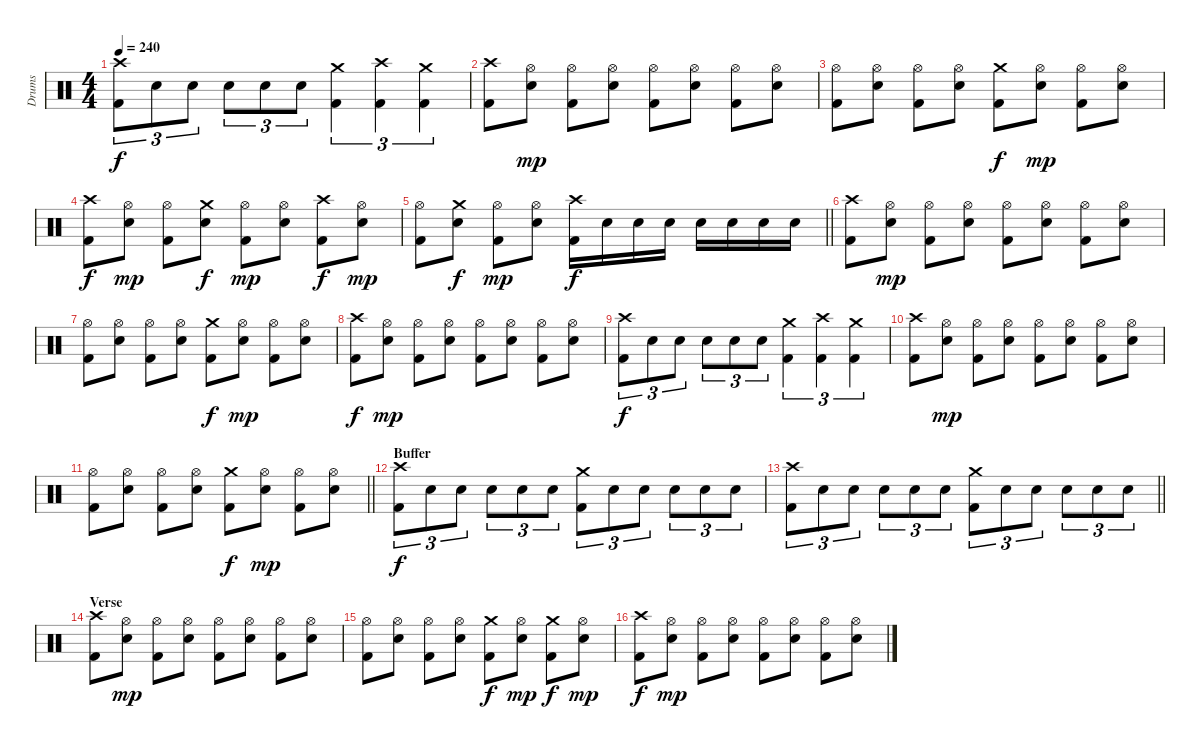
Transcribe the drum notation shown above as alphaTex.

\track ("Drums" "Drums") {instrument percussion}
\staff {score}
\articulation defaults
\ts (4 4)
\tempo 240
\clef neutral
\ks c
("Crash high (hit)" "Kick (hit) 2").8{tu (3 2) dy f} "Snare (hit) 2".8{tu (3 2)} "Snare (hit) 2".8{tu (3 2)} "Snare (hit) 2".8{tu (3 2)} "Snare (hit) 2".8{tu (3 2)} "Snare (hit) 2".8{tu (3 2)} ("Crash medium (hit)" "Kick (hit) 2").4{tu (3 2)} ("Crash high (hit)" "Kick (hit) 2").4{tu (3 2)} ("Crash medium (hit)" "Kick (hit) 2").4{tu (3 2)} |
("Crash high (hit)" "Kick (hit) 2").8 ("Hi-Hat (open)" "Snare (hit) 2").8{dy mp} ("Hi-Hat (open)" "Kick (hit) 2").8 ("Hi-Hat (open)" "Snare (hit) 2").8 ("Hi-Hat (open)" "Kick (hit) 2").8 ("Hi-Hat (open)" "Snare (hit) 2").8 ("Hi-Hat (open)" "Kick (hit) 2").8 ("Hi-Hat (open)" "Snare (hit) 2").8 |
("Hi-Hat (open)" "Kick (hit) 2").8 ("Hi-Hat (open)" "Snare (hit) 2").8 ("Hi-Hat (open)" "Kick (hit) 2").8 ("Hi-Hat (open)" "Snare (hit) 2").8 ("Crash medium (hit)" "Kick (hit) 2").8{dy f} ("Hi-Hat (open)" "Snare (hit) 2").8{dy mp} ("Hi-Hat (open)" "Kick (hit) 2").8 ("Hi-Hat (open)" "Snare (hit) 2").8 |
("Crash high (hit)" "Kick (hit) 2").8{dy f} ("Hi-Hat (open)" "Snare (hit) 2").8{dy mp} ("Hi-Hat (open)" "Kick (hit) 2").8 ("Crash medium (hit)" "Snare (hit) 2").8{dy f} ("Hi-Hat (open)" "Kick (hit) 2").8{dy mp} ("Hi-Hat (open)" "Snare (hit) 2").8 ("Crash high (hit)" "Kick (hit) 2").8{dy f} ("Hi-Hat (open)" "Snare (hit) 2").8{dy mp} |
\barLineRight lightlight
("Hi-Hat (open)" "Kick (hit) 2").8 ("Crash medium (hit)" "Snare (hit) 2").8{dy f} ("Hi-Hat (open)" "Kick (hit) 2").8{dy mp} ("Hi-Hat (open)" "Snare (hit) 2").8 ("Crash high (hit)" "Kick (hit) 2").16{dy f} "Snare (hit) 2".16 "Snare (hit) 2".16 "Snare (hit) 2".16 "Snare (hit) 2".16 "Snare (hit) 2".16 "Snare (hit) 2".16 "Snare (hit) 2".16 |
("Crash high (hit)" "Kick (hit) 2").8 ("Hi-Hat (open)" "Snare (hit) 2").8{dy mp} ("Hi-Hat (open)" "Kick (hit) 2").8 ("Hi-Hat (open)" "Snare (hit) 2").8 ("Hi-Hat (open)" "Kick (hit) 2").8 ("Hi-Hat (open)" "Snare (hit) 2").8 ("Hi-Hat (open)" "Kick (hit) 2").8 ("Hi-Hat (open)" "Snare (hit) 2").8 |
("Hi-Hat (open)" "Kick (hit) 2").8 ("Hi-Hat (open)" "Snare (hit) 2").8 ("Hi-Hat (open)" "Kick (hit) 2").8 ("Hi-Hat (open)" "Snare (hit) 2").8 ("Crash medium (hit)" "Kick (hit) 2").8{dy f} ("Hi-Hat (open)" "Snare (hit) 2").8{dy mp} ("Hi-Hat (open)" "Kick (hit) 2").8 ("Hi-Hat (open)" "Snare (hit) 2").8 |
("Crash high (hit)" "Kick (hit) 2").8{dy f} ("Hi-Hat (open)" "Snare (hit) 2").8{dy mp} ("Hi-Hat (open)" "Kick (hit) 2").8 ("Hi-Hat (open)" "Snare (hit) 2").8 ("Hi-Hat (open)" "Kick (hit) 2").8 ("Hi-Hat (open)" "Snare (hit) 2").8 ("Hi-Hat (open)" "Kick (hit) 2").8 ("Hi-Hat (open)" "Snare (hit) 2").8 |
("Crash high (hit)" "Kick (hit) 2").8{tu (3 2) dy f} "Snare (hit) 2".8{tu (3 2)} "Snare (hit) 2".8{tu (3 2)} "Snare (hit) 2".8{tu (3 2)} "Snare (hit) 2".8{tu (3 2)} "Snare (hit) 2".8{tu (3 2)} ("Crash medium (hit)" "Kick (hit) 2").4{tu (3 2)} ("Crash high (hit)" "Kick (hit) 2").4{tu (3 2)} ("Crash medium (hit)" "Kick (hit) 2").4{tu (3 2)} |
("Crash high (hit)" "Kick (hit) 2").8 ("Hi-Hat (open)" "Snare (hit) 2").8{dy mp} ("Hi-Hat (open)" "Kick (hit) 2").8 ("Hi-Hat (open)" "Snare (hit) 2").8 ("Hi-Hat (open)" "Kick (hit) 2").8 ("Hi-Hat (open)" "Snare (hit) 2").8 ("Hi-Hat (open)" "Kick (hit) 2").8 ("Hi-Hat (open)" "Snare (hit) 2").8 |
\barLineRight lightlight
("Hi-Hat (open)" "Kick (hit) 2").8 ("Hi-Hat (open)" "Snare (hit) 2").8 ("Hi-Hat (open)" "Kick (hit) 2").8 ("Hi-Hat (open)" "Snare (hit) 2").8 ("Crash medium (hit)" "Kick (hit) 2").8{dy f} ("Hi-Hat (open)" "Snare (hit) 2").8{dy mp} ("Hi-Hat (open)" "Kick (hit) 2").8 ("Hi-Hat (open)" "Snare (hit) 2").8 |
\section ("" "Buffer")
("Crash high (hit)" "Kick (hit) 2").8{tu (3 2) dy f} "Snare (hit) 2".8{tu (3 2)} "Snare (hit) 2".8{tu (3 2)} "Snare (hit) 2".8{tu (3 2)} "Snare (hit) 2".8{tu (3 2)} "Snare (hit) 2".8{tu (3 2)} ("Crash medium (hit)" "Kick (hit) 2").8{tu (3 2)} "Snare (hit) 2".8{tu (3 2)} "Snare (hit) 2".8{tu (3 2)} "Snare (hit) 2".8{tu (3 2)} "Snare (hit) 2".8{tu (3 2)} "Snare (hit) 2".8{tu (3 2)} |
\barLineRight lightlight
("Crash high (hit)" "Kick (hit) 2").8{tu (3 2)} "Snare (hit) 2".8{tu (3 2)} "Snare (hit) 2".8{tu (3 2)} "Snare (hit) 2".8{tu (3 2)} "Snare (hit) 2".8{tu (3 2)} "Snare (hit) 2".8{tu (3 2)} ("Crash medium (hit)" "Kick (hit) 2").8{tu (3 2)} "Snare (hit) 2".8{tu (3 2)} "Snare (hit) 2".8{tu (3 2)} "Snare (hit) 2".8{tu (3 2)} "Snare (hit) 2".8{tu (3 2)} "Snare (hit) 2".8{tu (3 2)} |
\section ("" "Verse")
("Crash high (hit)" "Kick (hit) 2").8 ("Hi-Hat (open)" "Snare (hit) 2").8{dy mp} ("Hi-Hat (open)" "Kick (hit) 2").8 ("Hi-Hat (open)" "Snare (hit) 2").8 ("Hi-Hat (open)" "Kick (hit) 2").8 ("Hi-Hat (open)" "Snare (hit) 2").8 ("Hi-Hat (open)" "Kick (hit) 2").8 ("Hi-Hat (open)" "Snare (hit) 2").8 |
("Hi-Hat (open)" "Kick (hit) 2").8 ("Hi-Hat (open)" "Snare (hit) 2").8 ("Hi-Hat (open)" "Kick (hit) 2").8 ("Hi-Hat (open)" "Snare (hit) 2").8 ("Crash medium (hit)" "Kick (hit) 2").8{dy f} ("Hi-Hat (open)" "Snare (hit) 2").8{dy mp} ("Crash medium (hit)" "Kick (hit) 2").8{dy f} ("Hi-Hat (open)" "Snare (hit) 2").8{dy mp} |
("Crash high (hit)" "Kick (hit) 2").8{dy f} ("Hi-Hat (open)" "Snare (hit) 2").8{dy mp} ("Hi-Hat (open)" "Kick (hit) 2").8 ("Hi-Hat (open)" "Snare (hit) 2").8 ("Hi-Hat (open)" "Kick (hit) 2").8 ("Hi-Hat (open)" "Snare (hit) 2").8 ("Hi-Hat (open)" "Kick (hit) 2").8 ("Hi-Hat (open)" "Snare (hit) 2").8
